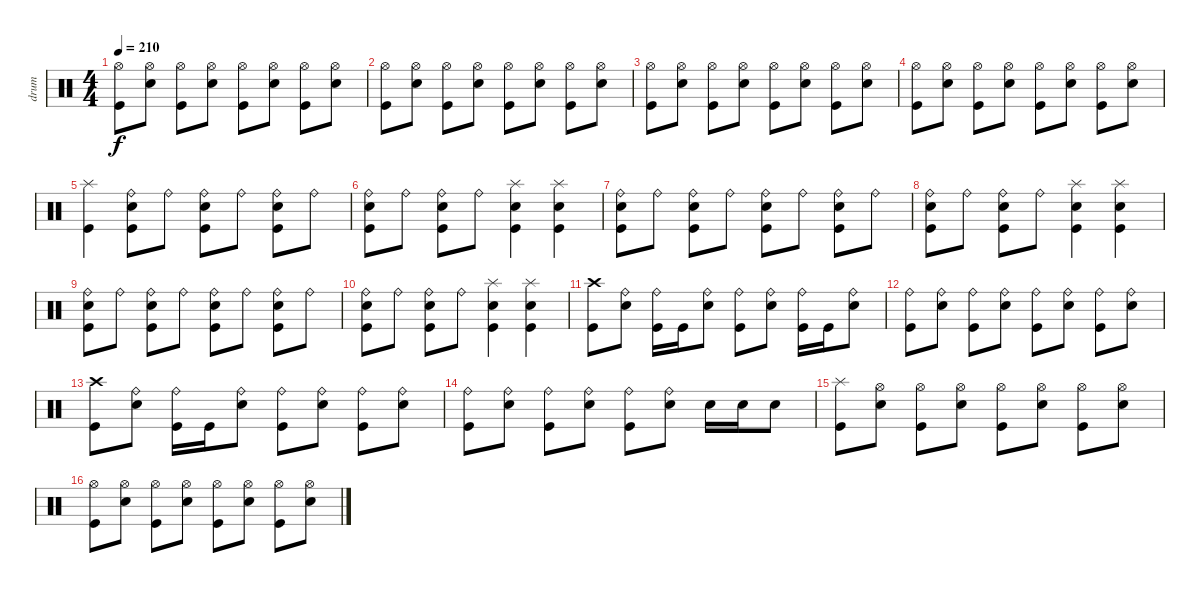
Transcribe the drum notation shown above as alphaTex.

\track ("drum" "drum") {instrument percussion}
\staff {score}
\articulation defaults
\ts (4 4)
\tempo 210
\clef neutral
\ks c
("Kick (hit)" "Hi-Hat (open)").8{dy f} ("Electric Snare (hit)" "Hi-Hat (open)").8 ("Kick (hit)" "Hi-Hat (open)").8 ("Electric Snare (hit)" "Hi-Hat (open)").8 ("Kick (hit)" "Hi-Hat (open)").8 ("Electric Snare (hit)" "Hi-Hat (open)").8 ("Kick (hit)" "Hi-Hat (open)").8 ("Electric Snare (hit)" "Hi-Hat (open)").8 |
("Kick (hit)" "Hi-Hat (open)").8 ("Electric Snare (hit)" "Hi-Hat (open)").8 ("Kick (hit)" "Hi-Hat (open)").8 ("Electric Snare (hit)" "Hi-Hat (open)").8 ("Kick (hit)" "Hi-Hat (open)").8 ("Electric Snare (hit)" "Hi-Hat (open)").8 ("Kick (hit)" "Hi-Hat (open)").8 ("Electric Snare (hit)" "Hi-Hat (open)").8 |
("Kick (hit)" "Hi-Hat (open)").8 ("Electric Snare (hit)" "Hi-Hat (open)").8 ("Kick (hit)" "Hi-Hat (open)").8 ("Electric Snare (hit)" "Hi-Hat (open)").8 ("Kick (hit)" "Hi-Hat (open)").8 ("Electric Snare (hit)" "Hi-Hat (open)").8 ("Kick (hit)" "Hi-Hat (open)").8 ("Electric Snare (hit)" "Hi-Hat (open)").8 |
("Kick (hit)" "Hi-Hat (open)").8 ("Electric Snare (hit)" "Hi-Hat (open)").8 ("Kick (hit)" "Hi-Hat (open)").8 ("Electric Snare (hit)" "Hi-Hat (open)").8 ("Kick (hit)" "Hi-Hat (open)").8 ("Electric Snare (hit)" "Hi-Hat (open)").8 ("Kick (hit)" "Hi-Hat (open)").8 ("Electric Snare (hit)" "Hi-Hat (open)").8 |
("Kick (hit)" "Splash (hit)").4 ("Kick (hit)" "Electric Snare (hit)" "Ride (bell)").8 "Ride (bell)".8 ("Kick (hit)" "Electric Snare (hit)" "Ride (bell)").8 "Ride (bell)".8 ("Kick (hit)" "Electric Snare (hit)" "Ride (bell)").8 "Ride (bell)".8 |
("Kick (hit)" "Electric Snare (hit)" "Ride (bell)").8 "Ride (bell)".8 ("Kick (hit)" "Electric Snare (hit)" "Ride (bell)").8 "Ride (bell)".8 ("Kick (hit)" "Electric Snare (hit)" "Splash (hit)").4 ("Kick (hit)" "Electric Snare (hit)" "Splash (hit)").4 |
("Kick (hit)" "Electric Snare (hit)" "Ride (bell)").8 "Ride (bell)".8 ("Kick (hit)" "Electric Snare (hit)" "Ride (bell)").8 "Ride (bell)".8 ("Kick (hit)" "Electric Snare (hit)" "Ride (bell)").8 "Ride (bell)".8 ("Kick (hit)" "Electric Snare (hit)" "Ride (bell)").8 "Ride (bell)".8 |
("Kick (hit)" "Electric Snare (hit)" "Ride (bell)").8 "Ride (bell)".8 ("Kick (hit)" "Electric Snare (hit)" "Ride (bell)").8 "Ride (bell)".8 ("Kick (hit)" "Electric Snare (hit)" "Splash (hit)").4 ("Kick (hit)" "Electric Snare (hit)" "Splash (hit)").4 |
("Kick (hit)" "Electric Snare (hit)" "Ride (bell)").8 "Ride (bell)".8 ("Kick (hit)" "Electric Snare (hit)" "Ride (bell)").8 "Ride (bell)".8 ("Kick (hit)" "Electric Snare (hit)" "Ride (bell)").8 "Ride (bell)".8 ("Kick (hit)" "Electric Snare (hit)" "Ride (bell)").8 "Ride (bell)".8 |
("Kick (hit)" "Electric Snare (hit)" "Ride (bell)").8 "Ride (bell)".8 ("Kick (hit)" "Electric Snare (hit)" "Ride (bell)").8 "Ride (bell)".8 ("Kick (hit)" "Electric Snare (hit)" "Splash (hit)").4 ("Kick (hit)" "Electric Snare (hit)" "Splash (hit)").4 |
("Kick (hit)" "Crash high (hit)").8 ("Electric Snare (hit)" "Ride (bell)").8 ("Kick (hit)" "Ride (bell)").16 "Kick (hit)".16 ("Electric Snare (hit)" "Ride (bell)").8 ("Kick (hit)" "Ride (bell)").8 ("Electric Snare (hit)" "Ride (bell)").8 ("Kick (hit)" "Ride (bell)").16 "Kick (hit)".16 ("Electric Snare (hit)" "Ride (bell)").8 |
("Kick (hit)" "Ride (bell)").8 ("Electric Snare (hit)" "Ride (bell)").8 ("Kick (hit)" "Ride (bell)").8 ("Electric Snare (hit)" "Ride (bell)").8 ("Kick (hit)" "Ride (bell)").8 ("Electric Snare (hit)" "Ride (bell)").8 ("Kick (hit)" "Ride (bell)").8 ("Electric Snare (hit)" "Ride (bell)").8 |
("Kick (hit)" "Crash high (hit)").8 ("Electric Snare (hit)" "Ride (bell)").8 ("Kick (hit)" "Ride (bell)").16 "Kick (hit)".16 ("Electric Snare (hit)" "Ride (bell)").8 ("Kick (hit)" "Ride (bell)").8 ("Electric Snare (hit)" "Ride (bell)").8 ("Kick (hit)" "Ride (bell)").8 ("Electric Snare (hit)" "Ride (bell)").8 |
("Kick (hit)" "Ride (bell)").8 ("Electric Snare (hit)" "Ride (bell)").8 ("Kick (hit)" "Ride (bell)").8 ("Electric Snare (hit)" "Ride (bell)").8 ("Kick (hit)" "Ride (bell)").8 ("Electric Snare (hit)" "Ride (bell)").8 "Electric Snare (hit)".16 "Electric Snare (hit)".16 "Electric Snare (hit)".8 |
("Kick (hit)" "Splash (hit)").8 ("Electric Snare (hit)" "Hi-Hat (open)").8 ("Kick (hit)" "Hi-Hat (open)").8 ("Electric Snare (hit)" "Hi-Hat (open)").8 ("Kick (hit)" "Hi-Hat (open)").8 ("Electric Snare (hit)" "Hi-Hat (open)").8 ("Kick (hit)" "Hi-Hat (open)").8 ("Electric Snare (hit)" "Hi-Hat (open)").8 |
("Kick (hit)" "Hi-Hat (open)").8 ("Electric Snare (hit)" "Hi-Hat (open)").8 ("Kick (hit)" "Hi-Hat (open)").8 ("Electric Snare (hit)" "Hi-Hat (open)").8 ("Kick (hit)" "Hi-Hat (open)").8 ("Electric Snare (hit)" "Hi-Hat (open)").8 ("Kick (hit)" "Hi-Hat (open)").8 ("Electric Snare (hit)" "Hi-Hat (open)").8
